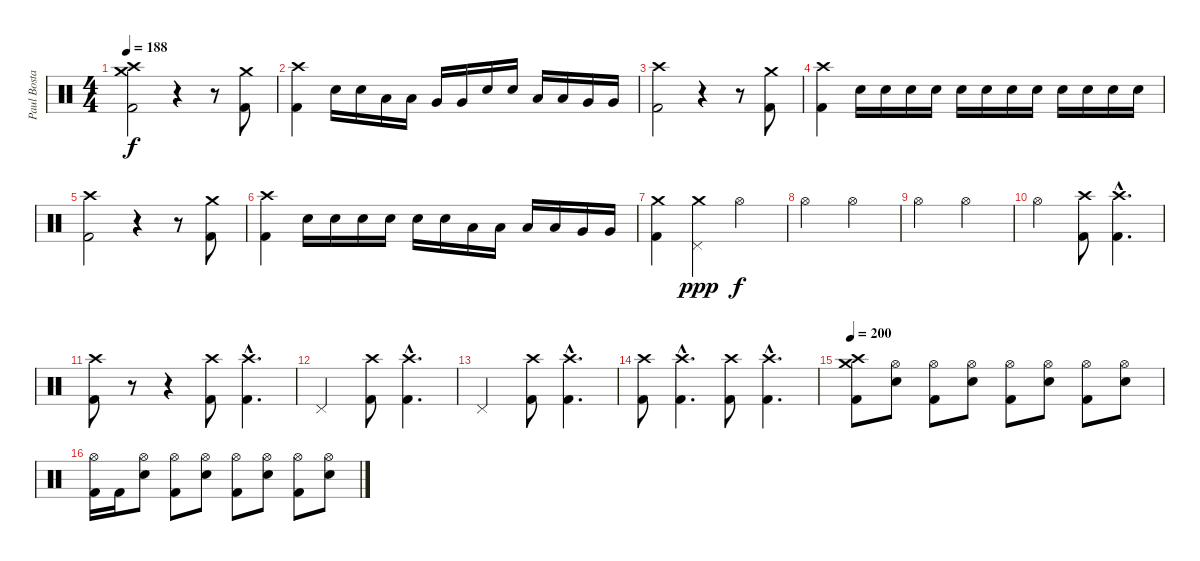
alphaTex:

\track ("Paul Bostaph" "Paul Bosta") {instrument percussion}
\staff {score}
\articulation defaults
\ts (4 4)
\tempo 188
\clef neutral
\ks c
("Crash high (hit)" "Kick (hit) 2" "Crash medium (hit)").2{dy f} r.4 r.8 ("Crash medium (hit)" "Kick (hit) 2").8 |
("Crash high (hit)" "Kick (hit) 2").4 "Electric Snare (hit)".16 "Electric Snare (hit)".16 "Low Tom (hit)".16 "Low Tom (hit)".16 "Very Low Tom (hit)".16 "Very Low Tom (hit)".16 "Electric Snare (hit)".16 "Electric Snare (hit)".16 "Low Tom (hit)".16 "Low Tom (hit)".16 "Very Low Tom (hit)".16 "Very Low Tom (hit)".16 |
("Crash high (hit)" "Kick (hit) 2").2 r.4 r.8 ("Crash medium (hit)" "Kick (hit) 2").8 |
("Crash high (hit)" "Kick (hit) 2").4 "Electric Snare (hit)".16 "Electric Snare (hit)".16 "Electric Snare (hit)".16 "Electric Snare (hit)".16 "Electric Snare (hit)".16 "Electric Snare (hit)".16 "Electric Snare (hit)".16 "Electric Snare (hit)".16 "Electric Snare (hit)".16 "Electric Snare (hit)".16 "Electric Snare (hit)".16 "Electric Snare (hit)".16 |
("Crash high (hit)" "Kick (hit) 2").2 r.4 r.8 ("Crash medium (hit)" "Kick (hit) 2").8 |
("Crash high (hit)" "Kick (hit) 2").4 "Electric Snare (hit)".16 "Electric Snare (hit)".16 "Electric Snare (hit)".16 "Electric Snare (hit)".16 "Electric Snare (hit)".16 "Electric Snare (hit)".16 "Low Tom (hit)".16 "Low Tom (hit)".16 "Low Tom (hit)".16 "Low Tom (hit)".16 "Very Low Tom (hit)".16 "Very Low Tom (hit)".16 |
("Crash medium (hit)" "Kick (hit) 2").4 ("Crash medium (hit)" "Pedal Hi-Hat (hit)").4{dy ppp} "Hi-Hat (open)".2{dy f} |
"Hi-Hat (open)".2 "Hi-Hat (open)".2 |
"Hi-Hat (open)".2 "Hi-Hat (open)".2 |
"Hi-Hat (open)".2 ("Crash high (hit)" "Kick (hit) 2").8 ("Crash high (hit)"{hac} "Kick (hit) 2"{hac}).4{d} |
("Crash high (hit)" "Kick (hit) 2").8 r.8 r.4 ("Crash high (hit)" "Kick (hit) 2").8 ("Crash high (hit)"{hac} "Kick (hit) 2"{hac}).4{d} |
"Pedal Hi-Hat (hit)".2 ("Crash high (hit)" "Kick (hit) 2").8 ("Crash high (hit)"{hac} "Kick (hit) 2"{hac}).4{d} |
"Pedal Hi-Hat (hit)".2 ("Crash high (hit)" "Kick (hit) 2").8 ("Crash high (hit)"{hac} "Kick (hit) 2"{hac}).4{d} |
("Crash high (hit)" "Kick (hit) 2").8 ("Crash high (hit)"{hac} "Kick (hit) 2"{hac}).4{d} ("Crash high (hit)" "Kick (hit) 2").8 ("Crash high (hit)"{hac} "Kick (hit) 2"{hac}).4{d} |
\tempo 200
("Crash medium (hit)" "Crash high (hit)" "Kick (hit) 2").8 ("Hi-Hat (open)" "Electric Snare (hit)").8 ("Hi-Hat (open)" "Kick (hit) 2").8 ("Hi-Hat (open)" "Electric Snare (hit)").8 ("Hi-Hat (open)" "Kick (hit) 2").8 ("Hi-Hat (open)" "Electric Snare (hit)").8 ("Hi-Hat (open)" "Kick (hit) 2").8 ("Hi-Hat (open)" "Electric Snare (hit)").8 |
("Hi-Hat (open)" "Kick (hit) 2").16 "Kick (hit) 2".16 ("Hi-Hat (open)" "Electric Snare (hit)").8 ("Hi-Hat (open)" "Kick (hit) 2").8 ("Hi-Hat (open)" "Electric Snare (hit)").8 ("Hi-Hat (open)" "Kick (hit) 2").8 ("Hi-Hat (open)" "Electric Snare (hit)").8 ("Hi-Hat (open)" "Kick (hit) 2").8 ("Hi-Hat (open)" "Electric Snare (hit)").8
